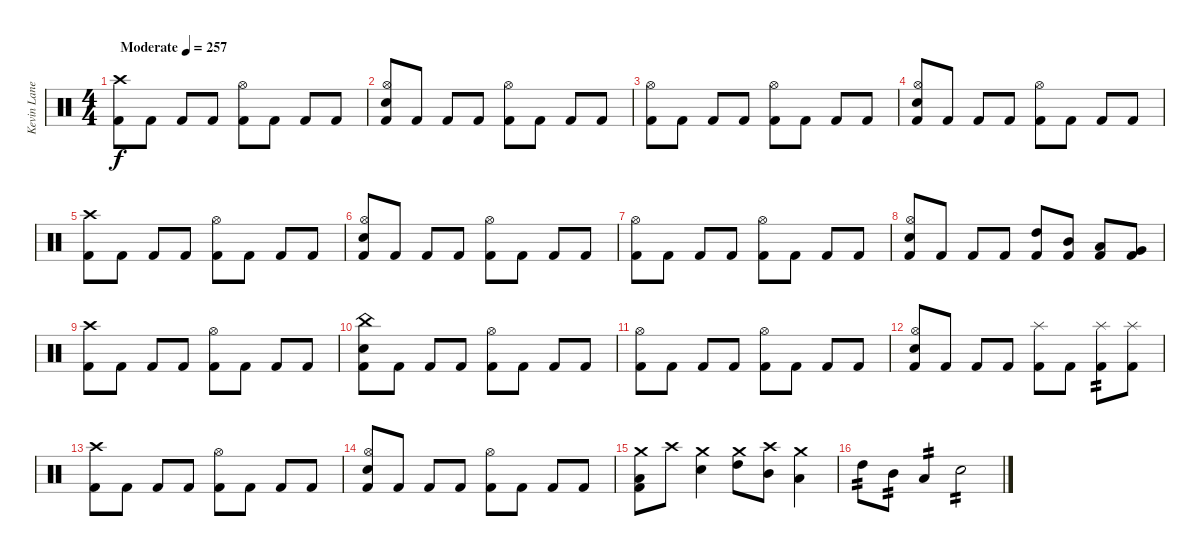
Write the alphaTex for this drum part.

\track ("Kevin Lane" "Kevin Lane") {instrument percussion}
\staff {score}
\articulation defaults
\ts (4 4)
\tempo (257 "Moderate")
\clef neutral
\ks c
("Crash high (hit)" "Kick (hit) 2").8{dy f} "Kick (hit) 2".8 "Kick (hit) 2".8 "Kick (hit) 2".8 ("Hi-Hat (open)" "Kick (hit) 2").8 "Kick (hit) 2".8 "Kick (hit) 2".8 "Kick (hit) 2".8 |
("Hi-Hat (open)" "Electric Snare (hit)" "Kick (hit) 2").8 "Kick (hit) 2".8 "Kick (hit) 2".8 "Kick (hit) 2".8 ("Hi-Hat (open)" "Kick (hit) 2").8 "Kick (hit) 2".8 "Kick (hit) 2".8 "Kick (hit) 2".8 |
("Hi-Hat (open)" "Kick (hit) 2").8 "Kick (hit) 2".8 "Kick (hit) 2".8 "Kick (hit) 2".8 ("Hi-Hat (open)" "Kick (hit) 2").8 "Kick (hit) 2".8 "Kick (hit) 2".8 "Kick (hit) 2".8 |
("Hi-Hat (open)" "Electric Snare (hit)" "Kick (hit) 2").8 "Kick (hit) 2".8 "Kick (hit) 2".8 "Kick (hit) 2".8 ("Hi-Hat (open)" "Kick (hit) 2").8 "Kick (hit) 2".8 "Kick (hit) 2".8 "Kick (hit) 2".8 |
("Crash high (hit)" "Kick (hit) 2").8 "Kick (hit) 2".8 "Kick (hit) 2".8 "Kick (hit) 2".8 ("Hi-Hat (open)" "Kick (hit) 2").8 "Kick (hit) 2".8 "Kick (hit) 2".8 "Kick (hit) 2".8 |
("Hi-Hat (open)" "Electric Snare (hit)" "Kick (hit) 2").8 "Kick (hit) 2".8 "Kick (hit) 2".8 "Kick (hit) 2".8 ("Hi-Hat (open)" "Kick (hit) 2").8 "Kick (hit) 2".8 "Kick (hit) 2".8 "Kick (hit) 2".8 |
("Hi-Hat (open)" "Kick (hit) 2").8 "Kick (hit) 2".8 "Kick (hit) 2".8 "Kick (hit) 2".8 ("Hi-Hat (open)" "Kick (hit) 2").8 "Kick (hit) 2".8 "Kick (hit) 2".8 "Kick (hit) 2".8 |
("Hi-Hat (open)" "Electric Snare (hit)" "Kick (hit) 2").8 "Kick (hit) 2".8 "Kick (hit) 2".8 "Kick (hit) 2".8 ("High Tom (hit)" "Kick (hit) 2").8 ("Mid Tom (hit)" "Kick (hit) 2").8 ("Low Tom (hit)" "Kick (hit) 2").8 ("Very Low Tom (hit)" "Kick (hit) 2").8 |
("Crash high (hit)" "Kick (hit) 2").8 "Kick (hit) 2".8 "Kick (hit) 2".8 "Kick (hit) 2".8 ("Hi-Hat (open)" "Kick (hit) 2").8 "Kick (hit) 2".8 "Kick (hit) 2".8 "Kick (hit) 2".8 |
("China (hit)" "Electric Snare (hit)" "Kick (hit) 2").8 "Kick (hit) 2".8 "Kick (hit) 2".8 "Kick (hit) 2".8 ("Hi-Hat (open)" "Kick (hit) 2").8 "Kick (hit) 2".8 "Kick (hit) 2".8 "Kick (hit) 2".8 |
("Hi-Hat (open)" "Kick (hit) 2").8 "Kick (hit) 2".8 "Kick (hit) 2".8 "Kick (hit) 2".8 ("Hi-Hat (open)" "Kick (hit) 2").8 "Kick (hit) 2".8 "Kick (hit) 2".8 "Kick (hit) 2".8 |
("Hi-Hat (open)" "Electric Snare (hit)" "Kick (hit) 2").8 "Kick (hit) 2".8 "Kick (hit) 2".8 "Kick (hit) 2".8 ("Splash (hit)" "Kick (hit) 2").8 "Kick (hit) 2".8 ("Splash (hit)" "Kick (hit) 2").8{tp 2} ("Splash (hit)" "Kick (hit) 2").8 |
("Crash high (hit)" "Kick (hit) 2").8 "Kick (hit) 2".8 "Kick (hit) 2".8 "Kick (hit) 2".8 ("Hi-Hat (open)" "Kick (hit) 2").8 "Kick (hit) 2".8 "Kick (hit) 2".8 "Kick (hit) 2".8 |
("Hi-Hat (open)" "Electric Snare (hit)" "Kick (hit) 2").8 "Kick (hit) 2".8 "Kick (hit) 2".8 "Kick (hit) 2".8 ("Hi-Hat (open)" "Kick (hit) 2").8 "Kick (hit) 2".8 "Kick (hit) 2".8 "Kick (hit) 2".8 |
("Crash medium (hit)" "Low Floor Tom (hit)" "Kick (hit) 2").8 "Crash high (hit)".8 ("Crash medium (hit)" "Electric Snare (hit)").4 ("Crash medium (hit)" "High Tom (hit)").8 ("Crash high (hit)" "Mid Tom (hit)").8 ("Crash medium (hit)" "Low Tom (hit)").4 |
"High Tom (hit)".8{tp 2} "Mid Tom (hit)".8{tp 2} "Low Tom (hit)".4{tp 2} "Electric Snare (hit)".2{tp 2}
